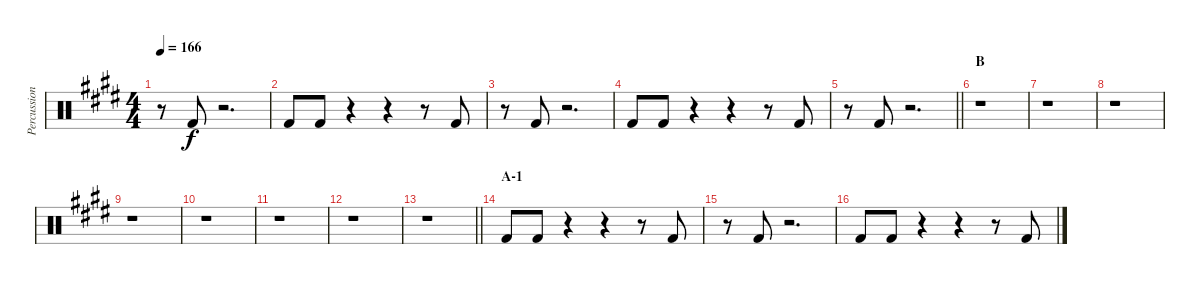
\track ("Percussion - Other Again" "Percussion") {instrument percussion}
\staff {score}
\articulation defaults
\ts (4 4)
\tempo 166
\clef neutral
\ks e
r.8{dy f} "Kick (hit) 2".8 r.2{d} |
"Kick (hit) 2".8 "Kick (hit) 2".8 r.4 r.4 r.8 "Kick (hit) 2".8 |
r.8 "Kick (hit) 2".8 r.2{d} |
"Kick (hit) 2".8 "Kick (hit) 2".8 r.4 r.4 r.8 "Kick (hit) 2".8 |
\barLineRight lightlight
r.8 "Kick (hit) 2".8 r.2{d} |
\section ("" "B")
r.1 |
r.1 |
r.1 |
r.1 |
r.1 |
r.1 |
r.1 |
\barLineRight lightlight
r.1 |
\section ("" "A-1")
"Kick (hit) 2".8 "Kick (hit) 2".8 r.4 r.4 r.8 "Kick (hit) 2".8 |
r.8 "Kick (hit) 2".8 r.2{d} |
"Kick (hit) 2".8 "Kick (hit) 2".8 r.4 r.4 r.8 "Kick (hit) 2".8
